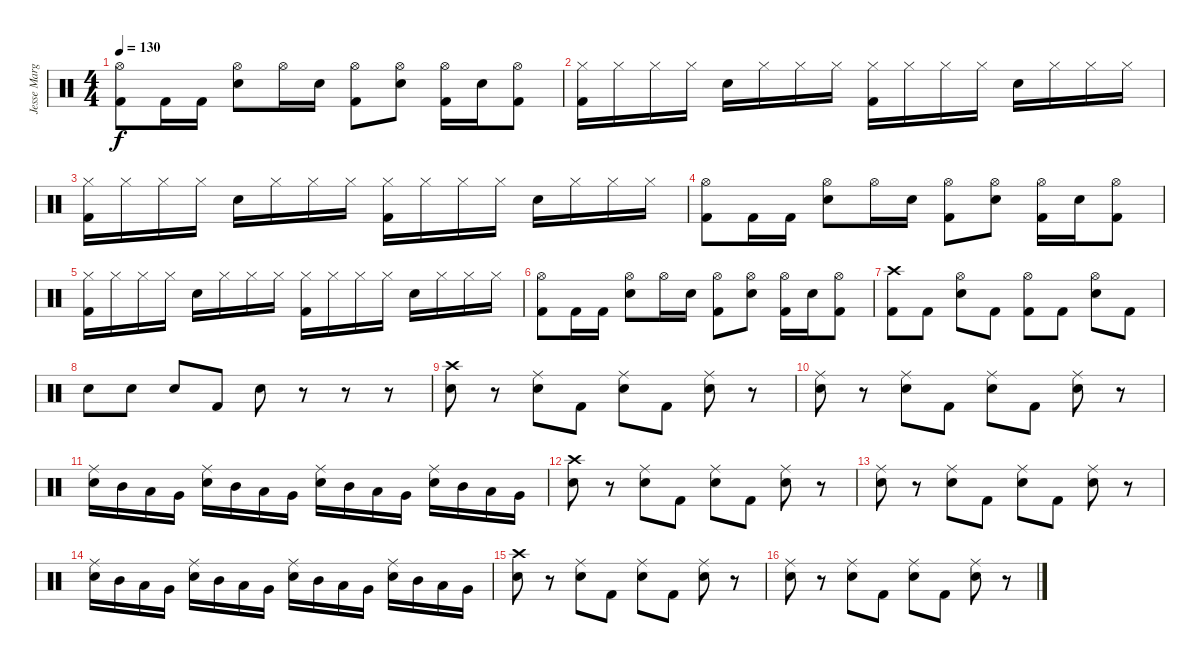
\track ("Jesse Margera" "Jesse Marg") {instrument percussion}
\staff {score}
\articulation defaults
\ts (4 4)
\tempo 130
\clef neutral
\ks c
("Hi-Hat (open)" "Kick (hit) 2").8{dy f} "Kick (hit) 2".16 "Kick (hit) 2".16 ("Hi-Hat (open)" "Electric Snare (hit)").8 "Hi-Hat (open)".16 "Electric Snare (hit)".16 ("Hi-Hat (open)" "Kick (hit) 2").8 ("Hi-Hat (open)" "Electric Snare (hit)").8 ("Hi-Hat (open)" "Kick (hit) 2").16 "Electric Snare (hit)".16 ("Hi-Hat (open)" "Kick (hit) 2").8 |
("Hi-Hat (closed)" "Kick (hit) 2").16 "Hi-Hat (closed)".16 "Hi-Hat (closed)".16 "Hi-Hat (closed)".16 "Electric Snare (hit)".16 "Hi-Hat (closed)".16 "Hi-Hat (closed)".16 "Hi-Hat (closed)".16 ("Hi-Hat (closed)" "Kick (hit) 2").16 "Hi-Hat (closed)".16 "Hi-Hat (closed)".16 "Hi-Hat (closed)".16 "Electric Snare (hit)".16 "Hi-Hat (closed)".16 "Hi-Hat (closed)".16 "Hi-Hat (closed)".16 |
("Hi-Hat (closed)" "Kick (hit) 2").16 "Hi-Hat (closed)".16 "Hi-Hat (closed)".16 "Hi-Hat (closed)".16 "Electric Snare (hit)".16 "Hi-Hat (closed)".16 "Hi-Hat (closed)".16 "Hi-Hat (closed)".16 ("Hi-Hat (closed)" "Kick (hit) 2").16 "Hi-Hat (closed)".16 "Hi-Hat (closed)".16 "Hi-Hat (closed)".16 "Electric Snare (hit)".16 "Hi-Hat (closed)".16 "Hi-Hat (closed)".16 "Hi-Hat (closed)".16 |
("Hi-Hat (open)" "Kick (hit) 2").8 "Kick (hit) 2".16 "Kick (hit) 2".16 ("Hi-Hat (open)" "Electric Snare (hit)").8 "Hi-Hat (open)".16 "Electric Snare (hit)".16 ("Hi-Hat (open)" "Kick (hit) 2").8 ("Hi-Hat (open)" "Electric Snare (hit)").8 ("Hi-Hat (open)" "Kick (hit) 2").16 "Electric Snare (hit)".16 ("Hi-Hat (open)" "Kick (hit) 2").8 |
("Hi-Hat (closed)" "Kick (hit) 2").16 "Hi-Hat (closed)".16 "Hi-Hat (closed)".16 "Hi-Hat (closed)".16 "Electric Snare (hit)".16 "Hi-Hat (closed)".16 "Hi-Hat (closed)".16 "Hi-Hat (closed)".16 ("Hi-Hat (closed)" "Kick (hit) 2").16 "Hi-Hat (closed)".16 "Hi-Hat (closed)".16 "Hi-Hat (closed)".16 "Electric Snare (hit)".16 "Hi-Hat (closed)".16 "Hi-Hat (closed)".16 "Hi-Hat (closed)".16 |
("Hi-Hat (open)" "Kick (hit) 2").8 "Kick (hit) 2".16 "Kick (hit) 2".16 ("Hi-Hat (open)" "Electric Snare (hit)").8 "Hi-Hat (open)".16 "Electric Snare (hit)".16 ("Hi-Hat (open)" "Kick (hit) 2").8 ("Hi-Hat (open)" "Electric Snare (hit)").8 ("Hi-Hat (open)" "Kick (hit) 2").16 "Electric Snare (hit)".16 ("Hi-Hat (open)" "Kick (hit) 2").8 |
("Crash high (hit)" "Kick (hit) 2").8 "Kick (hit) 2".8 ("Hi-Hat (open)" "Electric Snare (hit)").8 "Kick (hit) 2".8 ("Hi-Hat (open)" "Kick (hit) 2").8 "Kick (hit) 2".8 ("Hi-Hat (open)" "Electric Snare (hit)").8 "Kick (hit) 2".8 |
"Electric Snare (hit)".8 "Electric Snare (hit)".8 "Electric Snare (hit)".8 "Kick (hit) 2".8 "Electric Snare (hit)".8 r.8 r.8 r.8 |
("Crash high (hit)" "Electric Snare (hit)").8 r.8 ("Ride (middle)" "Electric Snare (hit)").8 "Kick (hit) 2".8 ("Ride (middle)" "Electric Snare (hit)").8 "Kick (hit) 2".8 ("Ride (middle)" "Electric Snare (hit)").8 r.8 |
("Ride (middle)" "Electric Snare (hit)").8 r.8 ("Ride (middle)" "Electric Snare (hit)").8 "Kick (hit) 2".8 ("Ride (middle)" "Electric Snare (hit)").8 "Kick (hit) 2".8 ("Ride (middle)" "Electric Snare (hit)").8 r.8 |
("Ride (middle)" "Electric Snare (hit)").16 "Mid Tom (hit)".16 "Low Tom (hit)".16 "Very Low Tom (hit)".16 ("Ride (middle)" "Electric Snare (hit)").16 "Mid Tom (hit)".16 "Low Tom (hit)".16 "Very Low Tom (hit)".16 ("Ride (middle)" "Electric Snare (hit)").16 "Mid Tom (hit)".16 "Low Tom (hit)".16 "Very Low Tom (hit)".16 ("Ride (middle)" "Electric Snare (hit)").16 "Mid Tom (hit)".16 "Low Tom (hit)".16 "Very Low Tom (hit)".16 |
("Crash high (hit)" "Electric Snare (hit)").8 r.8 ("Ride (middle)" "Electric Snare (hit)").8 "Kick (hit) 2".8 ("Ride (middle)" "Electric Snare (hit)").8 "Kick (hit) 2".8 ("Ride (middle)" "Electric Snare (hit)").8 r.8 |
("Ride (middle)" "Electric Snare (hit)").8 r.8 ("Ride (middle)" "Electric Snare (hit)").8 "Kick (hit) 2".8 ("Ride (middle)" "Electric Snare (hit)").8 "Kick (hit) 2".8 ("Ride (middle)" "Electric Snare (hit)").8 r.8 |
("Ride (middle)" "Electric Snare (hit)").16 "Mid Tom (hit)".16 "Low Tom (hit)".16 "Very Low Tom (hit)".16 ("Ride (middle)" "Electric Snare (hit)").16 "Mid Tom (hit)".16 "Low Tom (hit)".16 "Very Low Tom (hit)".16 ("Ride (middle)" "Electric Snare (hit)").16 "Mid Tom (hit)".16 "Low Tom (hit)".16 "Very Low Tom (hit)".16 ("Ride (middle)" "Electric Snare (hit)").16 "Mid Tom (hit)".16 "Low Tom (hit)".16 "Very Low Tom (hit)".16 |
("Crash high (hit)" "Electric Snare (hit)").8 r.8 ("Ride (middle)" "Electric Snare (hit)").8 "Kick (hit) 2".8 ("Ride (middle)" "Electric Snare (hit)").8 "Kick (hit) 2".8 ("Ride (middle)" "Electric Snare (hit)").8 r.8 |
("Ride (middle)" "Electric Snare (hit)").8 r.8 ("Ride (middle)" "Electric Snare (hit)").8 "Kick (hit) 2".8 ("Ride (middle)" "Electric Snare (hit)").8 "Kick (hit) 2".8 ("Ride (middle)" "Electric Snare (hit)").8 r.8
